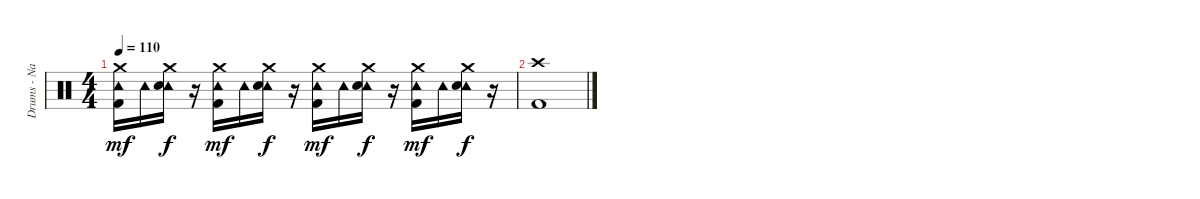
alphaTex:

\track ("Drums - Nathan" "Drums - Na") {instrument percussion}
\staff {score}
\articulation defaults
\ts (4 4)
\tempo 110
\clef neutral
\ks c
("Crash medium (hit)" "Tambourine (hit)" "Kick (hit) 2").16{dy mf} "Tambourine (hit)".16 ("Crash medium (hit)" "Tambourine (hit)" "Electric Snare (hit)").16{dy f} r.16 ("Crash medium (hit)" "Tambourine (hit)" "Kick (hit) 2").16{dy mf} "Tambourine (hit)".16 ("Crash medium (hit)" "Tambourine (hit)" "Electric Snare (hit)").16{dy f} r.16 ("Crash medium (hit)" "Tambourine (hit)" "Kick (hit) 2").16{dy mf} "Tambourine (hit)".16 ("Crash medium (hit)" "Tambourine (hit)" "Electric Snare (hit)").16{dy f} r.16 ("Crash medium (hit)" "Tambourine (hit)" "Kick (hit) 2").16{dy mf} "Tambourine (hit)".16 ("Crash medium (hit)" "Tambourine (hit)" "Electric Snare (hit)").16{dy f} r.16 |
("Crash high (hit)" "Kick (hit) 2").1
